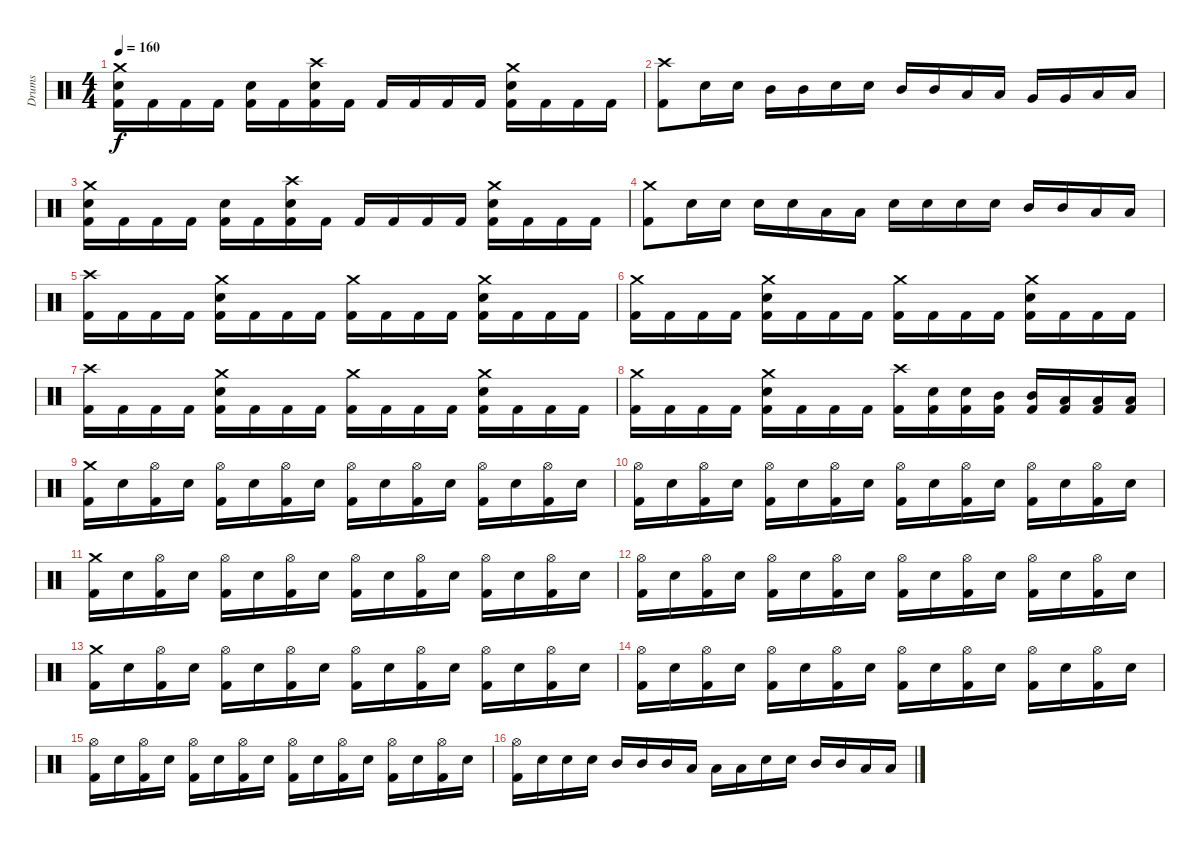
\track ("Drums" "Drums") {instrument percussion}
\staff {score}
\articulation defaults
\ts (4 4)
\tempo 160
\clef neutral
\ks c
("Kick (hit) 2" "Electric Snare (hit)" "Crash medium (hit)").16{dy f} "Kick (hit) 2".16 "Kick (hit) 2".16 "Kick (hit) 2".16 ("Kick (hit) 2" "Electric Snare (hit)").16 "Kick (hit) 2".16 ("Kick (hit) 2" "Electric Snare (hit)" "Crash high (hit)").16 "Kick (hit) 2".16 "Kick (hit) 2".16 "Kick (hit) 2".16 "Kick (hit) 2".16 "Kick (hit) 2".16 ("Kick (hit) 2" "Electric Snare (hit)" "Crash medium (hit)").16 "Kick (hit) 2".16 "Kick (hit) 2".16 "Kick (hit) 2".16 |
("Kick (hit) 2" "Crash high (hit)").8 "Electric Snare (hit)".16 "Electric Snare (hit)".16 "Mid Tom (hit)".16 "Mid Tom (hit)".16 "Electric Snare (hit)".16 "Electric Snare (hit)".16 "Mid Tom (hit)".16 "Mid Tom (hit)".16 "Low Tom (hit)".16 "Low Tom (hit)".16 "Very Low Tom (hit)".16 "Very Low Tom (hit)".16 "Low Floor Tom (hit)".16 "Low Floor Tom (hit)".16 |
("Kick (hit) 2" "Electric Snare (hit)" "Crash medium (hit)").16 "Kick (hit) 2".16 "Kick (hit) 2".16 "Kick (hit) 2".16 ("Kick (hit) 2" "Electric Snare (hit)").16 "Kick (hit) 2".16 ("Kick (hit) 2" "Electric Snare (hit)" "Crash high (hit)").16 "Kick (hit) 2".16 "Kick (hit) 2".16 "Kick (hit) 2".16 "Kick (hit) 2".16 "Kick (hit) 2".16 ("Kick (hit) 2" "Electric Snare (hit)" "Crash medium (hit)").16 "Kick (hit) 2".16 "Kick (hit) 2".16 "Kick (hit) 2".16 |
("Kick (hit) 2" "Crash medium (hit)").8 "Electric Snare (hit)".16 "Electric Snare (hit)".16 "Electric Snare (hit)".16 "Electric Snare (hit)".16 "Low Tom (hit)".16 "Low Tom (hit)".16 "Electric Snare (hit)".16 "Electric Snare (hit)".16 "Electric Snare (hit)".16 "Electric Snare (hit)".16 "Mid Tom (hit)".16 "Mid Tom (hit)".16 "Low Tom (hit)".16 "Low Tom (hit)".16 |
("Kick (hit) 2" "Crash high (hit)").16 "Kick (hit) 2".16 "Kick (hit) 2".16 "Kick (hit) 2".16 ("Kick (hit) 2" "Electric Snare (hit)" "Crash medium (hit)").16 "Kick (hit) 2".16 "Kick (hit) 2".16 "Kick (hit) 2".16 ("Kick (hit) 2" "Crash medium (hit)").16 "Kick (hit) 2".16 "Kick (hit) 2".16 "Kick (hit) 2".16 ("Kick (hit) 2" "Electric Snare (hit)" "Crash medium (hit)").16 "Kick (hit) 2".16 "Kick (hit) 2".16 "Kick (hit) 2".16 |
("Kick (hit) 2" "Crash medium (hit)").16 "Kick (hit) 2".16 "Kick (hit) 2".16 "Kick (hit) 2".16 ("Kick (hit) 2" "Electric Snare (hit)" "Crash medium (hit)").16 "Kick (hit) 2".16 "Kick (hit) 2".16 "Kick (hit) 2".16 ("Kick (hit) 2" "Crash medium (hit)").16 "Kick (hit) 2".16 "Kick (hit) 2".16 "Kick (hit) 2".16 ("Kick (hit) 2" "Electric Snare (hit)" "Crash medium (hit)").16 "Kick (hit) 2".16 "Kick (hit) 2".16 "Kick (hit) 2".16 |
("Kick (hit) 2" "Crash high (hit)").16 "Kick (hit) 2".16 "Kick (hit) 2".16 "Kick (hit) 2".16 ("Kick (hit) 2" "Electric Snare (hit)" "Crash medium (hit)").16 "Kick (hit) 2".16 "Kick (hit) 2".16 "Kick (hit) 2".16 ("Kick (hit) 2" "Crash medium (hit)").16 "Kick (hit) 2".16 "Kick (hit) 2".16 "Kick (hit) 2".16 ("Kick (hit) 2" "Electric Snare (hit)" "Crash medium (hit)").16 "Kick (hit) 2".16 "Kick (hit) 2".16 "Kick (hit) 2".16 |
("Kick (hit) 2" "Crash medium (hit)").16 "Kick (hit) 2".16 "Kick (hit) 2".16 "Kick (hit) 2".16 ("Kick (hit) 2" "Electric Snare (hit)" "Crash medium (hit)").16 "Kick (hit) 2".16 "Kick (hit) 2".16 "Kick (hit) 2".16 ("Kick (hit) 2" "Crash high (hit)").16 ("Kick (hit) 2" "Electric Snare (hit)").16 ("Kick (hit) 2" "Electric Snare (hit)").16 ("Kick (hit) 2" "Mid Tom (hit)").16 ("Kick (hit) 2" "Mid Tom (hit)").16 ("Kick (hit) 2" "Low Tom (hit)").16 ("Kick (hit) 2" "Low Tom (hit)").16 ("Kick (hit) 2" "Low Tom (hit)").16 |
("Kick (hit) 2" "Crash medium (hit)").16 "Electric Snare (hit)".16 ("Kick (hit) 2" "Hi-Hat (open)").16 "Electric Snare (hit)".16 ("Kick (hit) 2" "Hi-Hat (open)").16 "Electric Snare (hit)".16 ("Kick (hit) 2" "Hi-Hat (open)").16 "Electric Snare (hit)".16 ("Kick (hit) 2" "Hi-Hat (open)").16 "Electric Snare (hit)".16 ("Kick (hit) 2" "Hi-Hat (open)").16 "Electric Snare (hit)".16 ("Kick (hit) 2" "Hi-Hat (open)").16 "Electric Snare (hit)".16 ("Kick (hit) 2" "Hi-Hat (open)").16 "Electric Snare (hit)".16 |
("Kick (hit) 2" "Hi-Hat (open)").16 "Electric Snare (hit)".16 ("Kick (hit) 2" "Hi-Hat (open)").16 "Electric Snare (hit)".16 ("Kick (hit) 2" "Hi-Hat (open)").16 "Electric Snare (hit)".16 ("Kick (hit) 2" "Hi-Hat (open)").16 "Electric Snare (hit)".16 ("Kick (hit) 2" "Hi-Hat (open)").16 "Electric Snare (hit)".16 ("Kick (hit) 2" "Hi-Hat (open)").16 "Electric Snare (hit)".16 ("Kick (hit) 2" "Hi-Hat (open)").16 "Electric Snare (hit)".16 ("Kick (hit) 2" "Hi-Hat (open)").16 "Electric Snare (hit)".16 |
("Kick (hit) 2" "Crash medium (hit)").16 "Electric Snare (hit)".16 ("Kick (hit) 2" "Hi-Hat (open)").16 "Electric Snare (hit)".16 ("Kick (hit) 2" "Hi-Hat (open)").16 "Electric Snare (hit)".16 ("Kick (hit) 2" "Hi-Hat (open)").16 "Electric Snare (hit)".16 ("Kick (hit) 2" "Hi-Hat (open)").16 "Electric Snare (hit)".16 ("Kick (hit) 2" "Hi-Hat (open)").16 "Electric Snare (hit)".16 ("Kick (hit) 2" "Hi-Hat (open)").16 "Electric Snare (hit)".16 ("Kick (hit) 2" "Hi-Hat (open)").16 "Electric Snare (hit)".16 |
("Kick (hit) 2" "Hi-Hat (open)").16 "Electric Snare (hit)".16 ("Kick (hit) 2" "Hi-Hat (open)").16 "Electric Snare (hit)".16 ("Kick (hit) 2" "Hi-Hat (open)").16 "Electric Snare (hit)".16 ("Kick (hit) 2" "Hi-Hat (open)").16 "Electric Snare (hit)".16 ("Kick (hit) 2" "Hi-Hat (open)").16 "Electric Snare (hit)".16 ("Kick (hit) 2" "Hi-Hat (open)").16 "Electric Snare (hit)".16 ("Kick (hit) 2" "Hi-Hat (open)").16 "Electric Snare (hit)".16 ("Kick (hit) 2" "Hi-Hat (open)").16 "Electric Snare (hit)".16 |
("Kick (hit) 2" "Crash medium (hit)").16 "Electric Snare (hit)".16 ("Kick (hit) 2" "Hi-Hat (open)").16 "Electric Snare (hit)".16 ("Kick (hit) 2" "Hi-Hat (open)").16 "Electric Snare (hit)".16 ("Kick (hit) 2" "Hi-Hat (open)").16 "Electric Snare (hit)".16 ("Kick (hit) 2" "Hi-Hat (open)").16 "Electric Snare (hit)".16 ("Kick (hit) 2" "Hi-Hat (open)").16 "Electric Snare (hit)".16 ("Kick (hit) 2" "Hi-Hat (open)").16 "Electric Snare (hit)".16 ("Kick (hit) 2" "Hi-Hat (open)").16 "Electric Snare (hit)".16 |
("Kick (hit) 2" "Hi-Hat (open)").16 "Electric Snare (hit)".16 ("Kick (hit) 2" "Hi-Hat (open)").16 "Electric Snare (hit)".16 ("Kick (hit) 2" "Hi-Hat (open)").16 "Electric Snare (hit)".16 ("Kick (hit) 2" "Hi-Hat (open)").16 "Electric Snare (hit)".16 ("Kick (hit) 2" "Hi-Hat (open)").16 "Electric Snare (hit)".16 ("Kick (hit) 2" "Hi-Hat (open)").16 "Electric Snare (hit)".16 ("Kick (hit) 2" "Hi-Hat (open)").16 "Electric Snare (hit)".16 ("Kick (hit) 2" "Hi-Hat (open)").16 "Electric Snare (hit)".16 |
("Kick (hit) 2" "Hi-Hat (open)").16 "Electric Snare (hit)".16 ("Kick (hit) 2" "Hi-Hat (open)").16 "Electric Snare (hit)".16 ("Kick (hit) 2" "Hi-Hat (open)").16 "Electric Snare (hit)".16 ("Kick (hit) 2" "Hi-Hat (open)").16 "Electric Snare (hit)".16 ("Kick (hit) 2" "Hi-Hat (open)").16 "Electric Snare (hit)".16 ("Kick (hit) 2" "Hi-Hat (open)").16 "Electric Snare (hit)".16 ("Kick (hit) 2" "Hi-Hat (open)").16 "Electric Snare (hit)".16 ("Kick (hit) 2" "Hi-Hat (open)").16 "Electric Snare (hit)".16 |
("Kick (hit) 2" "Hi-Hat (open)").16 "Electric Snare (hit)".16 "Electric Snare (hit)".16 "Electric Snare (hit)".16 "Mid Tom (hit)".16 "Mid Tom (hit)".16 "Mid Tom (hit)".16 "Low Tom (hit)".16 "Low Tom (hit)".16 "Low Tom (hit)".16 "Electric Snare (hit)".16 "Electric Snare (hit)".16 "Mid Tom (hit)".16 "Mid Tom (hit)".16 "Low Tom (hit)".16 "Low Tom (hit)".16
